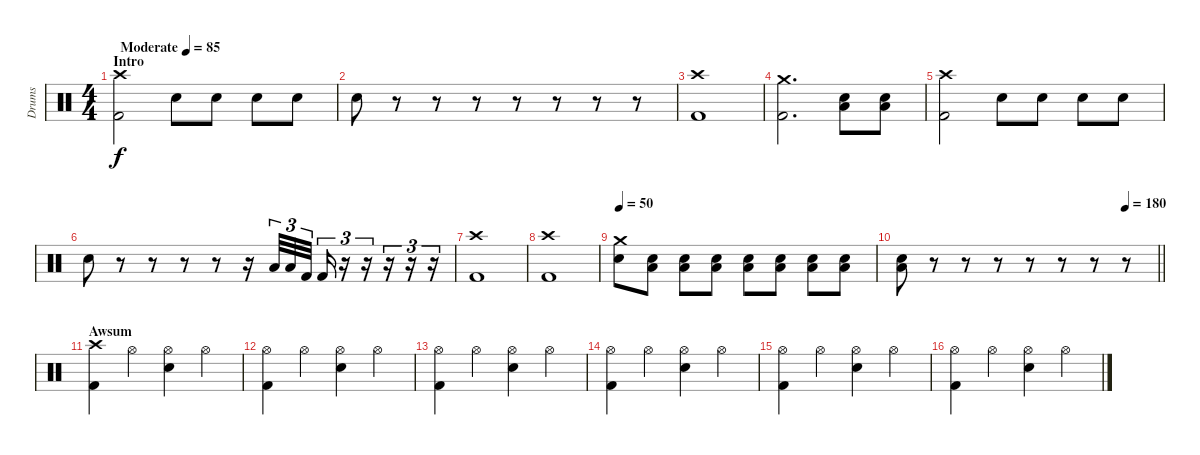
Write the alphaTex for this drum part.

\track ("Drums" "Drums") {instrument percussion}
\staff {score}
\articulation defaults
\ts (4 4)
\section ("" "Intro")
\tempo (85 "Moderate")
\clef neutral
\ks c
("Crash high (hit)" "Kick (hit) 2").2{dy f} "Electric Snare (hit)".8 "Electric Snare (hit)".8 "Electric Snare (hit)".8 "Electric Snare (hit)".8 |
"Electric Snare (hit)".8 r.8 r.8 r.8 r.8 r.8 r.8 r.8 |
("Crash high (hit)" "Kick (hit) 2").1 |
("Crash medium (hit)" "Kick (hit) 2").2{d} ("Low Floor Tom (hit)" "Electric Snare (hit)").8 ("Low Floor Tom (hit)" "Electric Snare (hit)").8 |
("Crash high (hit)" "Kick (hit) 2").2 "Electric Snare (hit)".8 "Electric Snare (hit)".8 "Electric Snare (hit)".8 "Electric Snare (hit)".8 |
"Electric Snare (hit)".8 r.8 r.8 r.8 r.8 r.16 "Low Floor Tom (hit)".32{tu (3 2)} "Low Floor Tom (hit)".32{tu (3 2)} "Kick (hit) 2".32{tu (3 2)} "Kick (hit) 2".16{tu (3 2)} r.16{tu (3 2)} r.16{tu (3 2)} r.16{tu (3 2)} r.16{tu (3 2)} r.16{tu (3 2)} |
("Crash high (hit)" "Kick (hit) 2").1 |
("Crash high (hit)" "Kick (hit) 2").1 |
\tempo 50
("Crash medium (hit)" "Electric Snare (hit)").8 ("Low Floor Tom (hit)" "Electric Snare (hit)").8 ("Low Floor Tom (hit)" "Electric Snare (hit)").8 ("Low Floor Tom (hit)" "Electric Snare (hit)").8 ("Low Floor Tom (hit)" "Electric Snare (hit)").8 ("Low Floor Tom (hit)" "Electric Snare (hit)").8 ("Low Floor Tom (hit)" "Electric Snare (hit)").8 ("Low Floor Tom (hit)" "Electric Snare (hit)").8 |
\tempo (180 0.875)
\barLineRight lightlight
("Low Floor Tom (hit)" "Electric Snare (hit)").8 r.8 r.8 r.8 r.8 r.8 r.8 r.8 |
\section ("" "Awsum")
("Crash high (hit)" "Kick (hit) 2").4 "Hi-Hat (open)".4 ("Hi-Hat (open)" "Electric Snare (hit)").4 "Hi-Hat (open)".4 |
("Hi-Hat (open)" "Kick (hit) 2").4 "Hi-Hat (open)".4 ("Hi-Hat (open)" "Electric Snare (hit)").4 "Hi-Hat (open)".4 |
("Hi-Hat (open)" "Kick (hit) 2").4 "Hi-Hat (open)".4 ("Hi-Hat (open)" "Electric Snare (hit)").4 "Hi-Hat (open)".4 |
("Hi-Hat (open)" "Kick (hit) 2").4 "Hi-Hat (open)".4 ("Hi-Hat (open)" "Electric Snare (hit)").4 "Hi-Hat (open)".4 |
("Hi-Hat (open)" "Kick (hit) 2").4 "Hi-Hat (open)".4 ("Hi-Hat (open)" "Electric Snare (hit)").4 "Hi-Hat (open)".4 |
("Hi-Hat (open)" "Kick (hit) 2").4 "Hi-Hat (open)".4 ("Hi-Hat (open)" "Electric Snare (hit)").4 "Hi-Hat (open)".4
